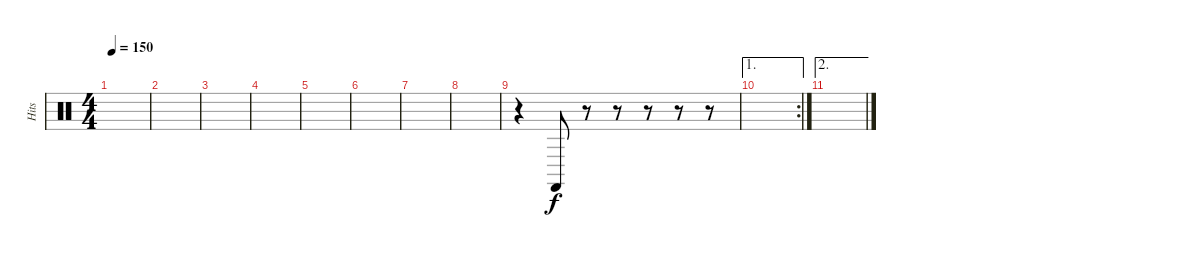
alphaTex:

\track ("Hits" "Hits") {instrument percussion}
\staff {score}
\articulation defaults
\ts (4 4)
\tempo 150
\clef neutral
\ks c
|
|
|
|
|
|
|
|
r.4 "Castanets (hit)".8 r.8 r.8 r.8 r.8 r.8 |
\ae 1
\rc 2
|
\ae 2
